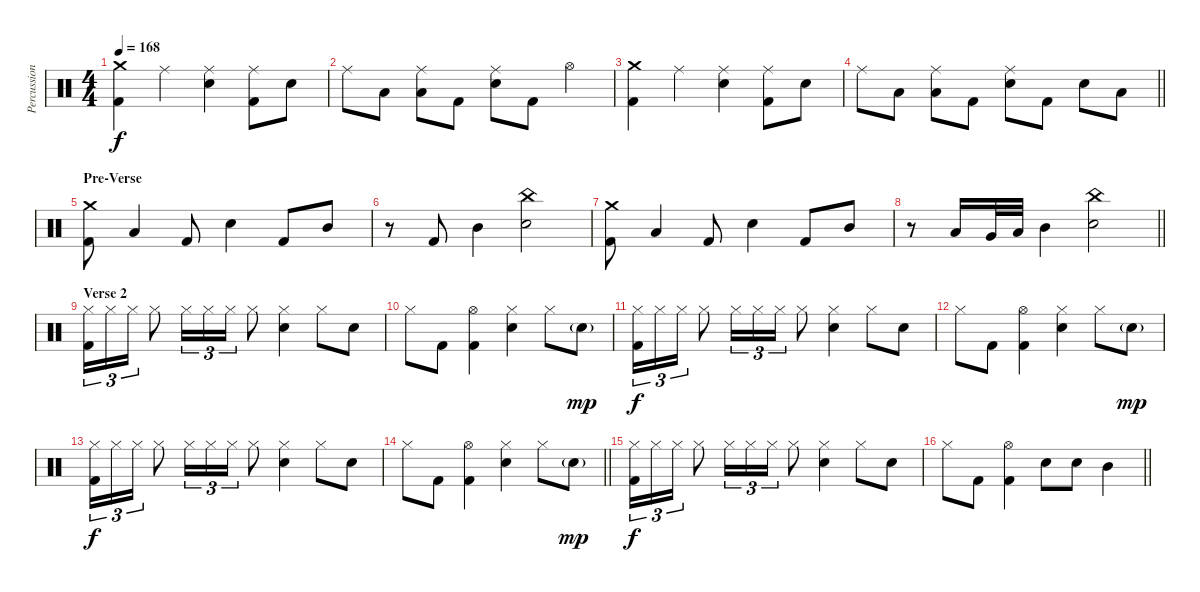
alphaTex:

\track ("Percussion" "Percussion") {instrument percussion}
\staff {score}
\articulation defaults
\ts (4 4)
\tempo 168
\clef neutral
\ks c
("Crash medium (hit)" "Kick (hit) 2").4{dy f} "Ride (middle)".4 ("Ride (middle)" "Electric Snare (hit)").4 ("Ride (middle)" "Kick (hit) 2").8 "Electric Snare (hit)".8 |
"Ride (middle)".8 "Low Tom (hit)".8 ("Ride (middle)" "Low Tom (hit)").8 "Kick (hit) 2".8 ("Ride (middle)" "Electric Snare (hit)").8 "Kick (hit) 2".8 "Hi-Hat (open)".4 |
("Crash medium (hit)" "Kick (hit) 2").4 "Ride (middle)".4 ("Ride (middle)" "Electric Snare (hit)").4 ("Ride (middle)" "Kick (hit) 2").8 "Electric Snare (hit)".8 |
\barLineRight lightlight "Ride (middle)".8 "Low Tom (hit)".8
("Ride (middle)" "Low Tom (hit)").8 "Kick (hit) 2".8 ("Ride (middle)" "Electric Snare (hit)").8 "Kick (hit) 2".8 "Electric Snare (hit)".8 "Low Tom (hit)".8 |
\section ("" "Pre-Verse")
("Crash medium (hit)" "Kick (hit) 2").8 "Low Tom (hit)".4 "Kick (hit) 2".8 "Electric Snare (hit)".4 "Kick (hit) 2".8 "Mid Tom (hit)".8 |
r.8 "Kick (hit) 2".8 "Mid Tom (hit)".4 ("China (hit)" "Electric Snare (hit)").2 |
("Crash medium (hit)" "Kick (hit) 2").8 "Low Tom (hit)".4 "Kick (hit) 2".8 "Electric Snare (hit)".4 "Kick (hit) 2".8 "Mid Tom (hit)".8 |
\barLineRight lightlight
r.8 "Low Tom (hit)".16 "Very Low Tom (hit)".32 "Low Floor Tom (hit)".32 "Mid Tom (hit)".4 ("China (hit)" "Electric Snare (hit)").2 |
\section ("" "Verse 2")
("Hi-Hat (closed)" "Kick (hit) 2").16{tu (3 2)} "Hi-Hat (closed)".16{tu (3 2)} "Hi-Hat (closed)".16{tu (3 2)} "Hi-Hat (closed)".8 "Hi-Hat (closed)".16{tu (3 2)} "Hi-Hat (closed)".16{tu (3 2)} "Hi-Hat (closed)".16{tu (3 2)} "Hi-Hat (closed)".8 ("Hi-Hat (closed)" "Electric Snare (hit)").4 "Hi-Hat (closed)".8 "Electric Snare (hit)".8 |
"Hi-Hat (closed)".8 "Kick (hit) 2".8 ("Hi-Hat (open)" "Kick (hit) 2").4 ("Hi-Hat (closed)" "Electric Snare (hit)").4 "Hi-Hat (closed)".8 "Electric Snare (hit)"{g}.8{dy mp} |
("Hi-Hat (closed)" "Kick (hit) 2").16{tu (3 2) dy f} "Hi-Hat (closed)".16{tu (3 2)} "Hi-Hat (closed)".16{tu (3 2)} "Hi-Hat (closed)".8 "Hi-Hat (closed)".16{tu (3 2)} "Hi-Hat (closed)".16{tu (3 2)} "Hi-Hat (closed)".16{tu (3 2)} "Hi-Hat (closed)".8 ("Hi-Hat (closed)" "Electric Snare (hit)").4 "Hi-Hat (closed)".8 "Electric Snare (hit)".8 |
"Hi-Hat (closed)".8 "Kick (hit) 2".8 ("Hi-Hat (open)" "Kick (hit) 2").4 ("Hi-Hat (closed)" "Electric Snare (hit)").4 "Hi-Hat (closed)".8 "Electric Snare (hit)"{g}.8{dy mp} |
("Hi-Hat (closed)" "Kick (hit) 2").16{tu (3 2) dy f} "Hi-Hat (closed)".16{tu (3 2)} "Hi-Hat (closed)".16{tu (3 2)} "Hi-Hat (closed)".8 "Hi-Hat (closed)".16{tu (3 2)} "Hi-Hat (closed)".16{tu (3 2)} "Hi-Hat (closed)".16{tu (3 2)} "Hi-Hat (closed)".8 ("Hi-Hat (closed)" "Electric Snare (hit)").4 "Hi-Hat (closed)".8 "Electric Snare (hit)".8 |
\barLineRight lightlight "Hi-Hat (closed)".8 "Kick (hit) 2".8
("Hi-Hat (open)" "Kick (hit) 2").4 ("Hi-Hat (closed)" "Electric Snare (hit)").4 "Hi-Hat (closed)".8 "Electric Snare (hit)"{g}.8{dy mp} |
("Hi-Hat (closed)" "Kick (hit) 2").16{tu (3 2) dy f} "Hi-Hat (closed)".16{tu (3 2)} "Hi-Hat (closed)".16{tu (3 2)} "Hi-Hat (closed)".8 "Hi-Hat (closed)".16{tu (3 2)} "Hi-Hat (closed)".16{tu (3 2)} "Hi-Hat (closed)".16{tu (3 2)} "Hi-Hat (closed)".8 ("Hi-Hat (closed)" "Electric Snare (hit)").4 "Hi-Hat (closed)".8 "Electric Snare (hit)".8 |
\barLineRight lightlight "Hi-Hat (closed)".8 "Kick (hit) 2".8
("Hi-Hat (open)" "Kick (hit) 2").4 "Electric Snare (hit)".8 "Electric Snare (hit)".8 "Mid Tom (hit)".4
